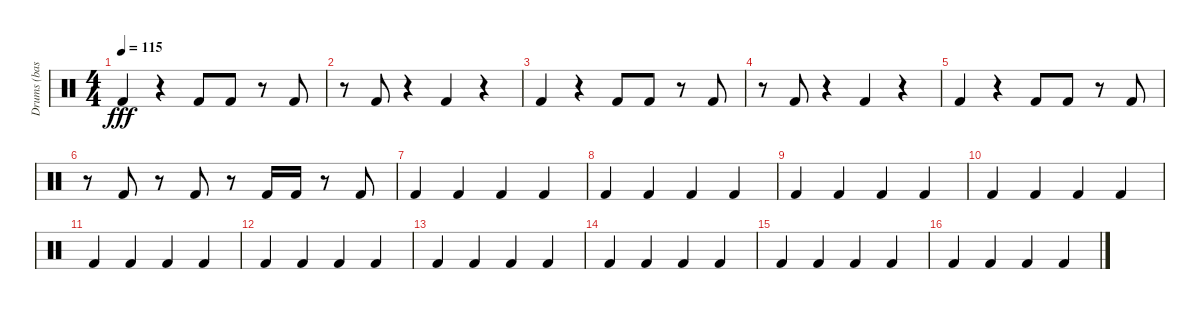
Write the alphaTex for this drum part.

\track ("Drums (bass drum)" "Drums (bas") {instrument percussion}
\staff {score}
\articulation defaults
\ts (4 4)
\tempo 115
\clef neutral
\ks c "Kick (hit) 2".4{dy fff}
r.4 "Kick (hit) 2".8 "Kick (hit) 2".8 r.8 "Kick (hit) 2".8 |
r.8 "Kick (hit) 2".8 r.4 "Kick (hit) 2".4 r.4 |
"Kick (hit) 2".4 r.4 "Kick (hit) 2".8 "Kick (hit) 2".8 r.8 "Kick (hit) 2".8 |
r.8 "Kick (hit) 2".8 r.4 "Kick (hit) 2".4 r.4 |
"Kick (hit) 2".4 r.4 "Kick (hit) 2".8 "Kick (hit) 2".8 r.8 "Kick (hit) 2".8 |
r.8 "Kick (hit) 2".8 r.8 "Kick (hit) 2".8 r.8 "Kick (hit) 2".16 "Kick (hit) 2".16 r.8 "Kick (hit) 2".8 |
"Kick (hit) 2".4 "Kick (hit) 2".4 "Kick (hit) 2".4 "Kick (hit) 2".4 |
"Kick (hit) 2".4 "Kick (hit) 2".4 "Kick (hit) 2".4 "Kick (hit) 2".4 |
"Kick (hit) 2".4 "Kick (hit) 2".4 "Kick (hit) 2".4 "Kick (hit) 2".4 |
"Kick (hit) 2".4 "Kick (hit) 2".4 "Kick (hit) 2".4 "Kick (hit) 2".4 |
"Kick (hit) 2".4 "Kick (hit) 2".4 "Kick (hit) 2".4 "Kick (hit) 2".4 |
"Kick (hit) 2".4 "Kick (hit) 2".4 "Kick (hit) 2".4 "Kick (hit) 2".4 |
"Kick (hit) 2".4 "Kick (hit) 2".4 "Kick (hit) 2".4 "Kick (hit) 2".4 |
"Kick (hit) 2".4 "Kick (hit) 2".4 "Kick (hit) 2".4 "Kick (hit) 2".4 |
"Kick (hit) 2".4 "Kick (hit) 2".4 "Kick (hit) 2".4 "Kick (hit) 2".4 |
"Kick (hit) 2".4 "Kick (hit) 2".4 "Kick (hit) 2".4 "Kick (hit) 2".4
